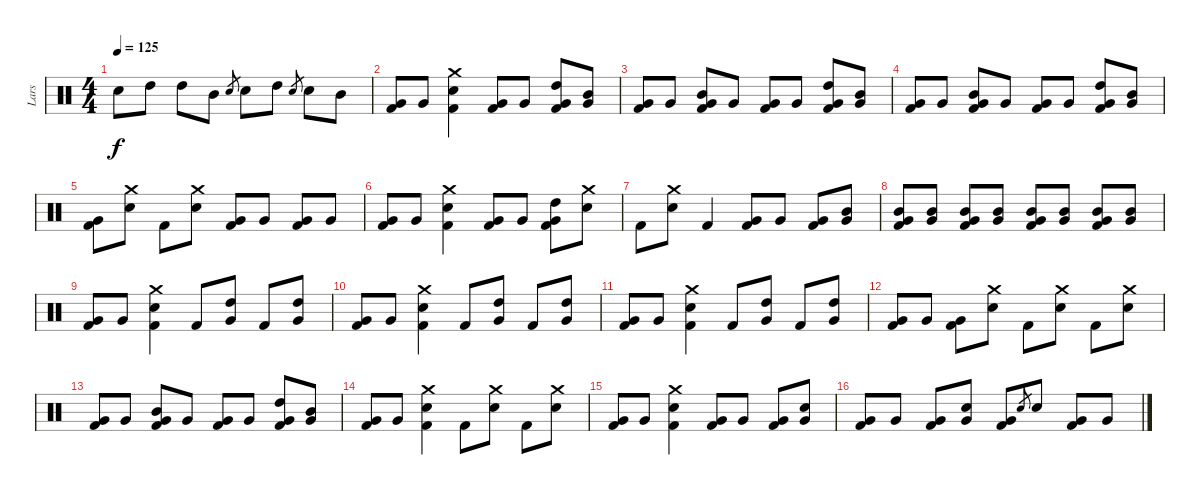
\track ("Lars" "Lars") {instrument percussion}
\staff {score}
\articulation defaults
\ts (4 4)
\tempo 125
\clef neutral
\ks c "Snare (hit) 2".8{dy f} "High Tom (hit)".8 "High Tom (hit)".8 "Mid Tom (hit)".8 "Snare (hit) 2".8{gr} "Snare (hit) 2".8 "High Tom (hit)".8 "Snare (hit) 2".8{gr} "Snare (hit) 2".8 "Mid Tom (hit)".8
|
("Very Low Tom (hit)" "Kick (hit) 2").8 "Very Low Tom (hit)".8 ("Crash medium (hit)" "Snare (hit) 2" "Kick (hit) 2").4 ("Very Low Tom (hit)" "Kick (hit) 2").8 "Very Low Tom (hit)".8 ("High Tom (hit)" "Very Low Tom (hit)" "Kick (hit) 2").8 ("Mid Tom (hit)" "Very Low Tom (hit)").8 |
("Very Low Tom (hit)" "Kick (hit) 2").8 "Very Low Tom (hit)".8 ("Very Low Tom (hit)" "Kick (hit) 2" "Mid Tom (hit)").8 "Very Low Tom (hit)".8 ("Very Low Tom (hit)" "Kick (hit) 2").8 "Very Low Tom (hit)".8 ("High Tom (hit)" "Very Low Tom (hit)" "Kick (hit) 2").8 ("Mid Tom (hit)" "Very Low Tom (hit)").8 |
("Very Low Tom (hit)" "Kick (hit) 2").8 "Very Low Tom (hit)".8 ("Very Low Tom (hit)" "Kick (hit) 2" "Mid Tom (hit)").8 "Very Low Tom (hit)".8 ("Very Low Tom (hit)" "Kick (hit) 2").8 "Very Low Tom (hit)".8 ("High Tom (hit)" "Very Low Tom (hit)" "Kick (hit) 2").8 ("Mid Tom (hit)" "Very Low Tom (hit)").8 |
("Very Low Tom (hit)" "Kick (hit) 2").8 ("Crash medium (hit)" "Snare (hit) 2").8 "Kick (hit) 2".8 ("Snare (hit) 2" "Crash medium (hit)").8 ("Very Low Tom (hit)" "Kick (hit) 2").8 "Very Low Tom (hit)".8 ("Very Low Tom (hit)" "Kick (hit) 2").8 "Very Low Tom (hit)".8 |
("Very Low Tom (hit)" "Kick (hit) 2").8 "Very Low Tom (hit)".8 ("Snare (hit) 2" "Crash medium (hit)" "Kick (hit) 2").4 ("Very Low Tom (hit)" "Kick (hit) 2").8 "Very Low Tom (hit)".8 ("High Tom (hit)" "Very Low Tom (hit)" "Kick (hit) 2").8 ("Crash medium (hit)" "Snare (hit) 2").8 |
"Kick (hit) 2".8 ("Snare (hit) 2" "Crash medium (hit)").8 "Kick (hit) 2".4 ("Very Low Tom (hit)" "Kick (hit) 2").8 "Very Low Tom (hit)".8 ("Very Low Tom (hit)" "Kick (hit) 2").8 ("Mid Tom (hit)" "Very Low Tom (hit)").8 |
("Mid Tom (hit)" "Very Low Tom (hit)" "Kick (hit) 2").8 ("Mid Tom (hit)" "Very Low Tom (hit)").8 ("Mid Tom (hit)" "Very Low Tom (hit)" "Kick (hit) 2").8 ("Mid Tom (hit)" "Very Low Tom (hit)").8 ("Mid Tom (hit)" "Very Low Tom (hit)" "Kick (hit) 2").8 ("Mid Tom (hit)" "Very Low Tom (hit)").8 ("Mid Tom (hit)" "Very Low Tom (hit)" "Kick (hit) 2").8 ("Mid Tom (hit)" "Very Low Tom (hit)").8 |
("Very Low Tom (hit)" "Kick (hit) 2").8 "Very Low Tom (hit)".8 ("Crash medium (hit)" "Snare (hit) 2" "Kick (hit) 2").4 "Kick (hit) 2".8 ("High Tom (hit)" "Very Low Tom (hit)").8 "Kick (hit) 2".8 ("High Tom (hit)" "Very Low Tom (hit)").8 |
("Very Low Tom (hit)" "Kick (hit) 2").8 "Very Low Tom (hit)".8 ("Crash medium (hit)" "Snare (hit) 2" "Kick (hit) 2").4 "Kick (hit) 2".8 ("High Tom (hit)" "Very Low Tom (hit)").8 "Kick (hit) 2".8 ("High Tom (hit)" "Very Low Tom (hit)").8 |
("Very Low Tom (hit)" "Kick (hit) 2").8 "Very Low Tom (hit)".8 ("Crash medium (hit)" "Snare (hit) 2" "Kick (hit) 2").4 "Kick (hit) 2".8 ("High Tom (hit)" "Very Low Tom (hit)").8 "Kick (hit) 2".8 ("High Tom (hit)" "Very Low Tom (hit)").8 |
("Very Low Tom (hit)" "Kick (hit) 2").8 "Very Low Tom (hit)".8 ("Very Low Tom (hit)" "Kick (hit) 2").8 ("Crash medium (hit)" "Snare (hit) 2").8 "Kick (hit) 2".8 ("Snare (hit) 2" "Crash medium (hit)").8 "Kick (hit) 2".8 ("Snare (hit) 2" "Crash medium (hit)").8 |
("Very Low Tom (hit)" "Kick (hit) 2").8 "Very Low Tom (hit)".8 ("Mid Tom (hit)" "Very Low Tom (hit)" "Kick (hit) 2").8 "Very Low Tom (hit)".8 ("Very Low Tom (hit)" "Kick (hit) 2").8 "Very Low Tom (hit)".8 ("High Tom (hit)" "Very Low Tom (hit)" "Kick (hit) 2").8 ("Mid Tom (hit)" "Very Low Tom (hit)").8 |
("Very Low Tom (hit)" "Kick (hit) 2").8 "Very Low Tom (hit)".8 ("Snare (hit) 2" "Crash medium (hit)" "Kick (hit) 2").4 "Kick (hit) 2".8 ("Snare (hit) 2" "Crash medium (hit)").8 "Kick (hit) 2".8 ("Snare (hit) 2" "Crash medium (hit)").8 |
("Very Low Tom (hit)" "Kick (hit) 2").8 "Very Low Tom (hit)".8 ("Crash medium (hit)" "Snare (hit) 2" "Kick (hit) 2").4 ("Very Low Tom (hit)" "Kick (hit) 2").8 "Very Low Tom (hit)".8 ("Very Low Tom (hit)" "Kick (hit) 2").8 ("Snare (hit) 2" "Very Low Tom (hit)").8 |
("Very Low Tom (hit)" "Kick (hit) 2").8 "Very Low Tom (hit)".8 ("Very Low Tom (hit)" "Kick (hit) 2").8 ("Snare (hit) 2" "Very Low Tom (hit)").8 ("Very Low Tom (hit)" "Kick (hit) 2").8 "Snare (hit) 2".8{gr} "Snare (hit) 2".8 ("Very Low Tom (hit)" "Kick (hit) 2").8 "Very Low Tom (hit)".8
